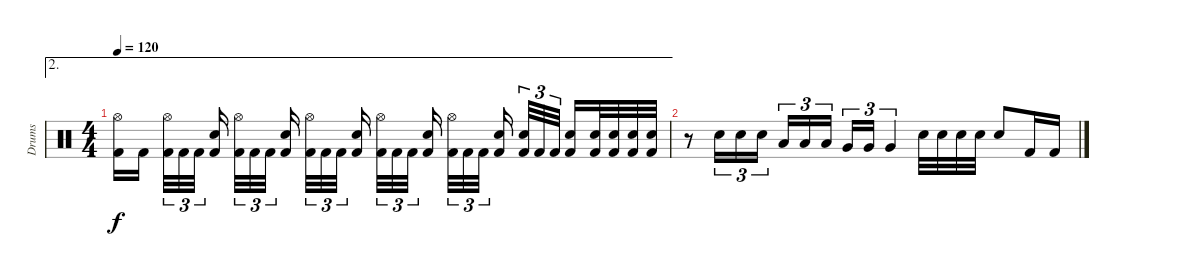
\track ("Drums" "Drums") {instrument percussion}
\staff {score}
\articulation defaults
\ae 2
\ts (4 4)
\tempo 120
\clef neutral
\ks c
("Hi-Hat (open)" "Kick (hit) 2").16{dy f} "Kick (hit) 2".16{beam splitsecondary} ("Hi-Hat (open)" "Kick (hit) 2").32{tu (3 2)} "Kick (hit) 2".32{tu (3 2)} "Kick (hit) 2".32{tu (3 2) beam splitsecondary} ("Snare (hit) 2" "Kick (hit) 2").16 ("Hi-Hat (open)" "Kick (hit) 2").32{tu (3 2)} "Kick (hit) 2".32{tu (3 2)} "Kick (hit) 2".32{tu (3 2) beam splitsecondary} ("Snare (hit) 2" "Kick (hit) 2").16{beam splitsecondary} ("Hi-Hat (open)" "Kick (hit) 2").32{tu (3 2)} "Kick (hit) 2".32{tu (3 2)} "Kick (hit) 2".32{tu (3 2) beam splitsecondary} ("Snare (hit) 2" "Kick (hit) 2").16 ("Hi-Hat (open)" "Kick (hit) 2").32{tu (3 2)} "Kick (hit) 2".32{tu (3 2)} "Kick (hit) 2".32{tu (3 2) beam splitsecondary} ("Snare (hit) 2" "Kick (hit) 2").16{beam splitsecondary} ("Hi-Hat (open)" "Kick (hit) 2").32{tu (3 2)} "Kick (hit) 2".32{tu (3 2)} "Kick (hit) 2".32{tu (3 2) beam splitsecondary} ("Snare (hit) 2" "Kick (hit) 2").16 ("Snare (hit) 2" "Kick (hit) 2").32{tu (3 2)} "Kick (hit) 2".32{tu (3 2)} "Kick (hit) 2".32{tu (3 2) beam splitsecondary} ("Snare (hit) 2" "Kick (hit) 2").16 ("Snare (hit) 2" "Kick (hit) 2").32 ("Snare (hit) 2" "Kick (hit) 2").32 ("Snare (hit) 2" "Kick (hit) 2").32 ("Snare (hit) 2" "Kick (hit) 2").32 |
r.8 "Electric Snare (hit)".16{tu (3 2)} "Electric Snare (hit)".16{tu (3 2)} "Electric Snare (hit)".16{tu (3 2)} "Low Tom (hit)".16{tu (3 2)} "Low Tom (hit)".16{tu (3 2)} "Low Tom (hit)".16{tu (3 2) beam splitsecondary} "Very Low Tom (hit)".16{tu (3 2)} "Very Low Tom (hit)".16{tu (3 2)} "Very Low Tom (hit)".4{tu (3 2)} "Electric Snare (hit)".32 "Electric Snare (hit)".32 "Electric Snare (hit)".32 "Electric Snare (hit)".32 "Electric Snare (hit)".8 "Kick (hit) 2".16 "Kick (hit) 2".16
